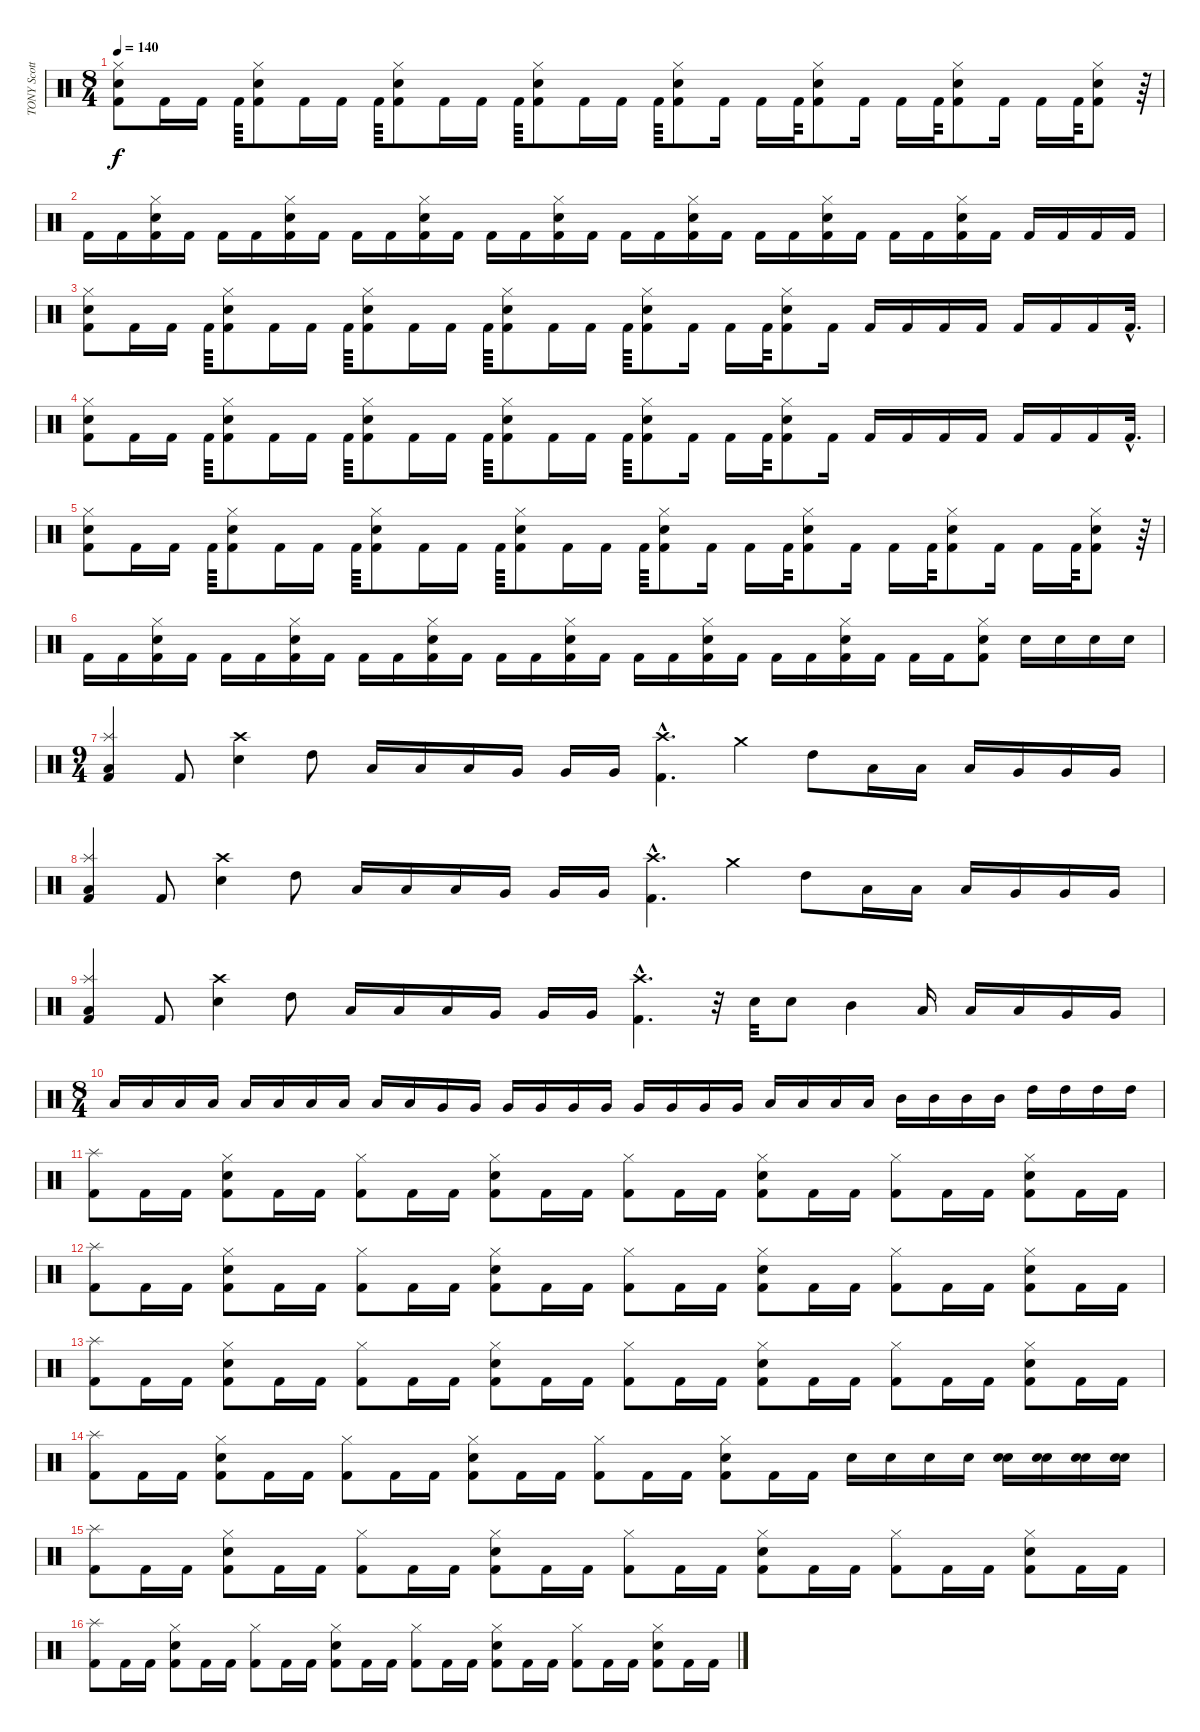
\track ("TONY Scotto" "TONY Scott") {instrument percussion}
\staff {score}
\articulation defaults
\ts (8 4)
\tempo 140
\clef neutral
\ks c
("Hi-Hat (closed)" "Electric Snare (hit)" "Kick (hit) 2").8{dy f} "Kick (hit) 2".16 "Kick (hit) 2".16 "Kick (hit) 2".64 ("Hi-Hat (closed)" "Electric Snare (hit)" "Kick (hit) 2").8 "Kick (hit) 2".16 "Kick (hit) 2".16 "Kick (hit) 2".64 ("Hi-Hat (closed)" "Electric Snare (hit)" "Kick (hit) 2").8 "Kick (hit) 2".16 "Kick (hit) 2".16 "Kick (hit) 2".64 ("Hi-Hat (closed)" "Electric Snare (hit)" "Kick (hit) 2").8 "Kick (hit) 2".16 "Kick (hit) 2".16 "Kick (hit) 2".64 ("Hi-Hat (closed)" "Electric Snare (hit)" "Kick (hit) 2").8 "Kick (hit) 2".16 "Kick (hit) 2".16 "Kick (hit) 2".64 ("Hi-Hat (closed)" "Electric Snare (hit)" "Kick (hit) 2").8 "Kick (hit) 2".16 "Kick (hit) 2".16 "Kick (hit) 2".64 ("Hi-Hat (closed)" "Electric Snare (hit)" "Kick (hit) 2").8 "Kick (hit) 2".16 "Kick (hit) 2".16 "Kick (hit) 2".64 ("Hi-Hat (closed)" "Electric Snare (hit)" "Kick (hit) 2").8 r.64 |
"Kick (hit) 2".16 "Kick (hit) 2".16 ("Hi-Hat (closed)" "Electric Snare (hit)" "Kick (hit) 2").16 "Kick (hit) 2".16 "Kick (hit) 2".16 "Kick (hit) 2".16 ("Hi-Hat (closed)" "Electric Snare (hit)" "Kick (hit) 2").16 "Kick (hit) 2".16 "Kick (hit) 2".16 "Kick (hit) 2".16 ("Hi-Hat (closed)" "Electric Snare (hit)" "Kick (hit) 2").16 "Kick (hit) 2".16 "Kick (hit) 2".16 "Kick (hit) 2".16 ("Hi-Hat (closed)" "Electric Snare (hit)" "Kick (hit) 2").16 "Kick (hit) 2".16 "Kick (hit) 2".16 "Kick (hit) 2".16 ("Hi-Hat (closed)" "Electric Snare (hit)" "Kick (hit) 2").16 "Kick (hit) 2".16 "Kick (hit) 2".16 "Kick (hit) 2".16 ("Hi-Hat (closed)" "Electric Snare (hit)" "Kick (hit) 2").16 "Kick (hit) 2".16 "Kick (hit) 2".16 "Kick (hit) 2".16 ("Hi-Hat (closed)" "Electric Snare (hit)" "Kick (hit) 2").16 "Kick (hit) 2".16 "Kick (hit) 2".16 "Kick (hit) 2".16 "Kick (hit) 2".16 "Kick (hit) 2".16 |
("Hi-Hat (closed)" "Electric Snare (hit)" "Kick (hit) 2").8 "Kick (hit) 2".16 "Kick (hit) 2".16 "Kick (hit) 2".64 ("Hi-Hat (closed)" "Electric Snare (hit)" "Kick (hit) 2").8 "Kick (hit) 2".16 "Kick (hit) 2".16 "Kick (hit) 2".64 ("Hi-Hat (closed)" "Electric Snare (hit)" "Kick (hit) 2").8 "Kick (hit) 2".16 "Kick (hit) 2".16 "Kick (hit) 2".64 ("Hi-Hat (closed)" "Electric Snare (hit)" "Kick (hit) 2").8 "Kick (hit) 2".16 "Kick (hit) 2".16 "Kick (hit) 2".64 ("Hi-Hat (closed)" "Electric Snare (hit)" "Kick (hit) 2").8 "Kick (hit) 2".16 "Kick (hit) 2".16 "Kick (hit) 2".64 ("Hi-Hat (closed)" "Electric Snare (hit)" "Kick (hit) 2").8 "Kick (hit) 2".16 "Kick (hit) 2".16 "Kick (hit) 2".16 "Kick (hit) 2".16 "Kick (hit) 2".16 "Kick (hit) 2".16 "Kick (hit) 2".16 "Kick (hit) 2".16 "Kick (hit) 2"{hac}.32{d} |
("Hi-Hat (closed)" "Electric Snare (hit)" "Kick (hit) 2").8 "Kick (hit) 2".16 "Kick (hit) 2".16 "Kick (hit) 2".64 ("Hi-Hat (closed)" "Electric Snare (hit)" "Kick (hit) 2").8 "Kick (hit) 2".16 "Kick (hit) 2".16 "Kick (hit) 2".64 ("Hi-Hat (closed)" "Electric Snare (hit)" "Kick (hit) 2").8 "Kick (hit) 2".16 "Kick (hit) 2".16 "Kick (hit) 2".64 ("Hi-Hat (closed)" "Electric Snare (hit)" "Kick (hit) 2").8 "Kick (hit) 2".16 "Kick (hit) 2".16 "Kick (hit) 2".64 ("Hi-Hat (closed)" "Electric Snare (hit)" "Kick (hit) 2").8 "Kick (hit) 2".16 "Kick (hit) 2".16 "Kick (hit) 2".64 ("Hi-Hat (closed)" "Electric Snare (hit)" "Kick (hit) 2").8 "Kick (hit) 2".16 "Kick (hit) 2".16 "Kick (hit) 2".16 "Kick (hit) 2".16 "Kick (hit) 2".16 "Kick (hit) 2".16 "Kick (hit) 2".16 "Kick (hit) 2".16 "Kick (hit) 2"{hac}.32{d} |
("Hi-Hat (closed)" "Electric Snare (hit)" "Kick (hit) 2").8 "Kick (hit) 2".16 "Kick (hit) 2".16 "Kick (hit) 2".64 ("Hi-Hat (closed)" "Electric Snare (hit)" "Kick (hit) 2").8 "Kick (hit) 2".16 "Kick (hit) 2".16 "Kick (hit) 2".64 ("Hi-Hat (closed)" "Electric Snare (hit)" "Kick (hit) 2").8 "Kick (hit) 2".16 "Kick (hit) 2".16 "Kick (hit) 2".64 ("Hi-Hat (closed)" "Electric Snare (hit)" "Kick (hit) 2").8 "Kick (hit) 2".16 "Kick (hit) 2".16 "Kick (hit) 2".64 ("Hi-Hat (closed)" "Electric Snare (hit)" "Kick (hit) 2").8 "Kick (hit) 2".16 "Kick (hit) 2".16 "Kick (hit) 2".64 ("Hi-Hat (closed)" "Electric Snare (hit)" "Kick (hit) 2").8 "Kick (hit) 2".16 "Kick (hit) 2".16 "Kick (hit) 2".64 ("Hi-Hat (closed)" "Electric Snare (hit)" "Kick (hit) 2").8 "Kick (hit) 2".16 "Kick (hit) 2".16 "Kick (hit) 2".64 ("Hi-Hat (closed)" "Electric Snare (hit)" "Kick (hit) 2").8 r.64 |
"Kick (hit) 2".16 "Kick (hit) 2".16 ("Hi-Hat (closed)" "Electric Snare (hit)" "Kick (hit) 2").16 "Kick (hit) 2".16 "Kick (hit) 2".16 "Kick (hit) 2".16 ("Hi-Hat (closed)" "Electric Snare (hit)" "Kick (hit) 2").16 "Kick (hit) 2".16 "Kick (hit) 2".16 "Kick (hit) 2".16 ("Hi-Hat (closed)" "Electric Snare (hit)" "Kick (hit) 2").16 "Kick (hit) 2".16 "Kick (hit) 2".16 "Kick (hit) 2".16 ("Hi-Hat (closed)" "Electric Snare (hit)" "Kick (hit) 2").16 "Kick (hit) 2".16 "Kick (hit) 2".16 "Kick (hit) 2".16 ("Hi-Hat (closed)" "Electric Snare (hit)" "Kick (hit) 2").16 "Kick (hit) 2".16 "Kick (hit) 2".16 "Kick (hit) 2".16 ("Hi-Hat (closed)" "Electric Snare (hit)" "Kick (hit) 2").16 "Kick (hit) 2".16 "Kick (hit) 2".16 "Kick (hit) 2".16 ("Hi-Hat (closed)" "Electric Snare (hit)" "Kick (hit) 2").8 "Electric Snare (hit)".16 "Electric Snare (hit)".16 "Electric Snare (hit)".16 "Electric Snare (hit)".16 |
\ts (9 4)
("Splash (hit)" "Low Tom (hit)" "Kick (hit) 2").4 "Kick (hit) 2".8 ("Crash high (hit)" "Electric Snare (hit)").4 "High Tom (hit)".8 "Low Floor Tom (hit)".16 "Low Floor Tom (hit)".16 "Low Floor Tom (hit)".16 "Very Low Tom (hit)".16 "Very Low Tom (hit)".16 "Very Low Tom (hit)".16 ("Crash high (hit)"{hac} "Kick (hit) 2"{hac}).4{d} "Crash medium (hit)".4 "High Tom (hit)".8 "Low Floor Tom (hit)".16 "Low Floor Tom (hit)".16 "Low Floor Tom (hit)".16 "Very Low Tom (hit)".16 "Very Low Tom (hit)".16 "Very Low Tom (hit)".16 |
("Splash (hit)" "Low Tom (hit)" "Kick (hit) 2").4 "Kick (hit) 2".8 ("Crash high (hit)" "Electric Snare (hit)").4 "High Tom (hit)".8 "Low Floor Tom (hit)".16 "Low Floor Tom (hit)".16 "Low Floor Tom (hit)".16 "Very Low Tom (hit)".16 "Very Low Tom (hit)".16 "Very Low Tom (hit)".16 ("Crash high (hit)"{hac} "Kick (hit) 2"{hac}).4{d} "Crash medium (hit)".4 "High Tom (hit)".8 "Low Floor Tom (hit)".16 "Low Floor Tom (hit)".16 "Low Floor Tom (hit)".16 "Very Low Tom (hit)".16 "Very Low Tom (hit)".16 "Very Low Tom (hit)".16 |
("Splash (hit)" "Low Tom (hit)" "Kick (hit) 2").4 "Kick (hit) 2".8 ("Crash high (hit)" "Electric Snare (hit)").4 "High Tom (hit)".8 "Low Floor Tom (hit)".16 "Low Floor Tom (hit)".16 "Low Floor Tom (hit)".16 "Very Low Tom (hit)".16 "Very Low Tom (hit)".16 "Very Low Tom (hit)".16 ("Crash high (hit)"{hac} "Kick (hit) 2"{hac}).4{d} r.32 "Electric Snare (hit)".32 "Electric Snare (hit)".8 "Mid Tom (hit)".4 "Low Floor Tom (hit)".16 "Low Floor Tom (hit)".16 "Low Floor Tom (hit)".16 "Very Low Tom (hit)".16 "Very Low Tom (hit)".16 |
\ts (8 4)
"Low Floor Tom (hit)".16 "Low Floor Tom (hit)".16 "Low Floor Tom (hit)".16 "Low Floor Tom (hit)".16 "Low Floor Tom (hit)".16 "Low Floor Tom (hit)".16 "Low Floor Tom (hit)".16 "Low Floor Tom (hit)".16 "Low Floor Tom (hit)".16 "Low Floor Tom (hit)".16 "Very Low Tom (hit)".16 "Very Low Tom (hit)".16 "Very Low Tom (hit)".16 "Very Low Tom (hit)".16 "Very Low Tom (hit)".16 "Very Low Tom (hit)".16 "Very Low Tom (hit)".16 "Very Low Tom (hit)".16 "Very Low Tom (hit)".16 "Very Low Tom (hit)".16 "Low Tom (hit)".16 "Low Tom (hit)".16 "Low Tom (hit)".16 "Low Tom (hit)".16 "Mid Tom (hit)".16 "Mid Tom (hit)".16 "Mid Tom (hit)".16 "Mid Tom (hit)".16 "High Tom (hit)".16 "High Tom (hit)".16 "High Tom (hit)".16 "High Tom (hit)".16 |
("Splash (hit)" "Kick (hit) 2").8 "Kick (hit) 2".16 "Kick (hit) 2".16 ("Hi-Hat (closed)" "Electric Snare (hit)" "Kick (hit) 2").8 "Kick (hit) 2".16 "Kick (hit) 2".16 ("Hi-Hat (closed)" "Kick (hit) 2").8 "Kick (hit) 2".16 "Kick (hit) 2".16 ("Hi-Hat (closed)" "Electric Snare (hit)" "Kick (hit) 2").8 "Kick (hit) 2".16 "Kick (hit) 2".16 ("Hi-Hat (closed)" "Kick (hit) 2").8 "Kick (hit) 2".16 "Kick (hit) 2".16 ("Hi-Hat (closed)" "Electric Snare (hit)" "Kick (hit) 2").8 "Kick (hit) 2".16 "Kick (hit) 2".16 ("Hi-Hat (closed)" "Kick (hit) 2").8 "Kick (hit) 2".16 "Kick (hit) 2".16 ("Hi-Hat (closed)" "Electric Snare (hit)" "Kick (hit) 2").8 "Kick (hit) 2".16 "Kick (hit) 2".16 |
("Splash (hit)" "Kick (hit) 2").8 "Kick (hit) 2".16 "Kick (hit) 2".16 ("Hi-Hat (closed)" "Electric Snare (hit)" "Kick (hit) 2").8 "Kick (hit) 2".16 "Kick (hit) 2".16 ("Hi-Hat (closed)" "Kick (hit) 2").8 "Kick (hit) 2".16 "Kick (hit) 2".16 ("Hi-Hat (closed)" "Electric Snare (hit)" "Kick (hit) 2").8 "Kick (hit) 2".16 "Kick (hit) 2".16 ("Hi-Hat (closed)" "Kick (hit) 2").8 "Kick (hit) 2".16 "Kick (hit) 2".16 ("Hi-Hat (closed)" "Electric Snare (hit)" "Kick (hit) 2").8 "Kick (hit) 2".16 "Kick (hit) 2".16 ("Hi-Hat (closed)" "Kick (hit) 2").8 "Kick (hit) 2".16 "Kick (hit) 2".16 ("Hi-Hat (closed)" "Electric Snare (hit)" "Kick (hit) 2").8 "Kick (hit) 2".16 "Kick (hit) 2".16 |
("Splash (hit)" "Kick (hit) 2").8 "Kick (hit) 2".16 "Kick (hit) 2".16 ("Hi-Hat (closed)" "Electric Snare (hit)" "Kick (hit) 2").8 "Kick (hit) 2".16 "Kick (hit) 2".16 ("Hi-Hat (closed)" "Kick (hit) 2").8 "Kick (hit) 2".16 "Kick (hit) 2".16 ("Hi-Hat (closed)" "Electric Snare (hit)" "Kick (hit) 2").8 "Kick (hit) 2".16 "Kick (hit) 2".16 ("Hi-Hat (closed)" "Kick (hit) 2").8 "Kick (hit) 2".16 "Kick (hit) 2".16 ("Hi-Hat (closed)" "Electric Snare (hit)" "Kick (hit) 2").8 "Kick (hit) 2".16 "Kick (hit) 2".16 ("Hi-Hat (closed)" "Kick (hit) 2").8 "Kick (hit) 2".16 "Kick (hit) 2".16 ("Hi-Hat (closed)" "Electric Snare (hit)" "Kick (hit) 2").8 "Kick (hit) 2".16 "Kick (hit) 2".16 |
("Splash (hit)" "Kick (hit) 2").8 "Kick (hit) 2".16 "Kick (hit) 2".16 ("Hi-Hat (closed)" "Electric Snare (hit)" "Kick (hit) 2").8 "Kick (hit) 2".16 "Kick (hit) 2".16 ("Hi-Hat (closed)" "Kick (hit) 2").8 "Kick (hit) 2".16 "Kick (hit) 2".16 ("Hi-Hat (closed)" "Electric Snare (hit)" "Kick (hit) 2").8 "Kick (hit) 2".16 "Kick (hit) 2".16 ("Hi-Hat (closed)" "Kick (hit) 2").8 "Kick (hit) 2".16 "Kick (hit) 2".16 ("Hi-Hat (closed)" "Electric Snare (hit)" "Kick (hit) 2").8 "Kick (hit) 2".16 "Kick (hit) 2".16 "Electric Snare (hit)".16 "Electric Snare (hit)".16 "Electric Snare (hit)".16 "Electric Snare (hit)".16 ("Electric Snare (hit)" "Electric Snare (hit)").16 ("Electric Snare (hit)" "Electric Snare (hit)").16 ("Electric Snare (hit)" "Electric Snare (hit)").16 ("Electric Snare (hit)" "Electric Snare (hit)").16 |
("Splash (hit)" "Kick (hit) 2").8 "Kick (hit) 2".16 "Kick (hit) 2".16 ("Hi-Hat (closed)" "Electric Snare (hit)" "Kick (hit) 2").8 "Kick (hit) 2".16 "Kick (hit) 2".16 ("Hi-Hat (closed)" "Kick (hit) 2").8 "Kick (hit) 2".16 "Kick (hit) 2".16 ("Hi-Hat (closed)" "Electric Snare (hit)" "Kick (hit) 2").8 "Kick (hit) 2".16 "Kick (hit) 2".16 ("Hi-Hat (closed)" "Kick (hit) 2").8 "Kick (hit) 2".16 "Kick (hit) 2".16 ("Hi-Hat (closed)" "Electric Snare (hit)" "Kick (hit) 2").8 "Kick (hit) 2".16 "Kick (hit) 2".16 ("Hi-Hat (closed)" "Kick (hit) 2").8 "Kick (hit) 2".16 "Kick (hit) 2".16 ("Hi-Hat (closed)" "Electric Snare (hit)" "Kick (hit) 2").8 "Kick (hit) 2".16 "Kick (hit) 2".16 |
("Splash (hit)" "Kick (hit) 2").8 "Kick (hit) 2".16 "Kick (hit) 2".16 ("Hi-Hat (closed)" "Electric Snare (hit)" "Kick (hit) 2").8 "Kick (hit) 2".16 "Kick (hit) 2".16 ("Hi-Hat (closed)" "Kick (hit) 2").8 "Kick (hit) 2".16 "Kick (hit) 2".16 ("Hi-Hat (closed)" "Electric Snare (hit)" "Kick (hit) 2").8 "Kick (hit) 2".16 "Kick (hit) 2".16 ("Hi-Hat (closed)" "Kick (hit) 2").8 "Kick (hit) 2".16 "Kick (hit) 2".16 ("Hi-Hat (closed)" "Electric Snare (hit)" "Kick (hit) 2").8 "Kick (hit) 2".16 "Kick (hit) 2".16 ("Hi-Hat (closed)" "Kick (hit) 2").8 "Kick (hit) 2".16 "Kick (hit) 2".16 ("Hi-Hat (closed)" "Electric Snare (hit)" "Kick (hit) 2").8 "Kick (hit) 2".16 "Kick (hit) 2".16
